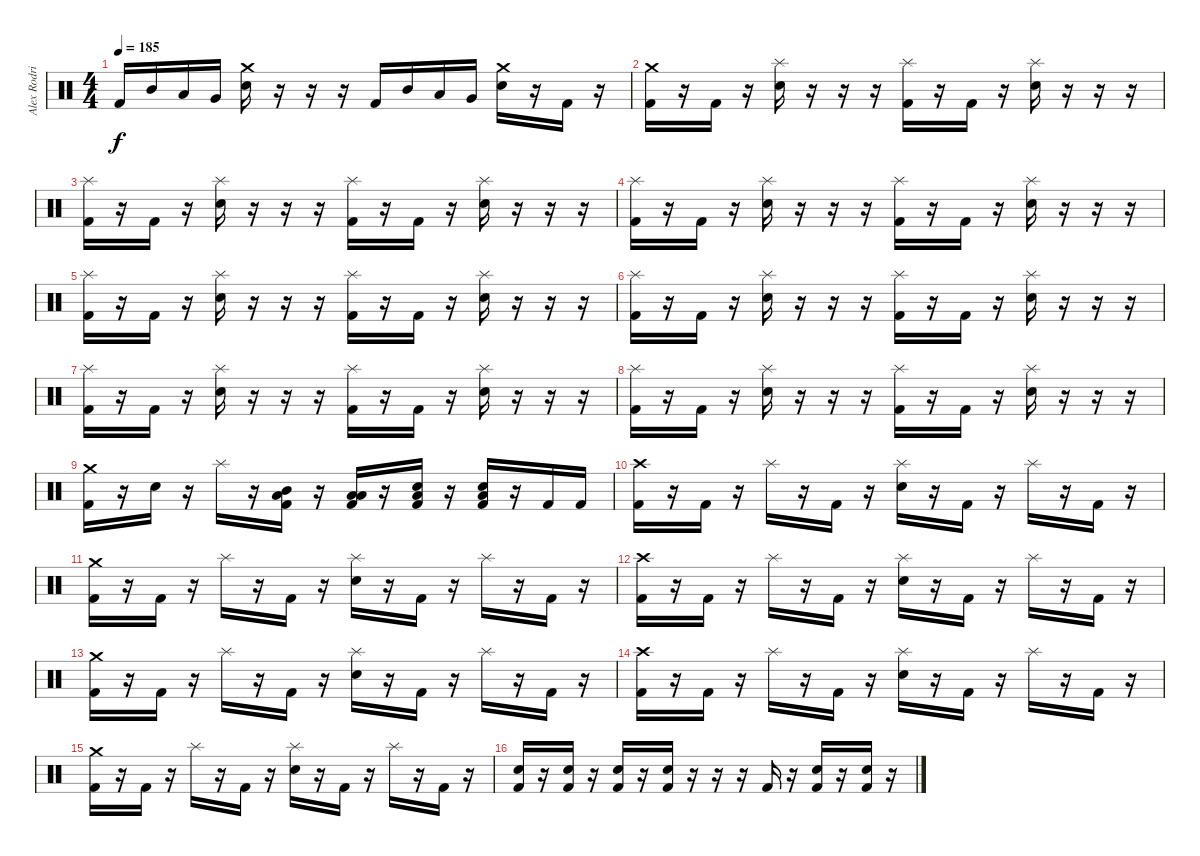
\track ("Alex Rodriguez" "Alex Rodri") {instrument percussion}
\staff {score}
\articulation defaults
\ts (4 4)
\tempo 185
\clef neutral
\ks c "Kick (hit) 2".16{dy f} "Mid Tom (hit)".16 "Low Tom (hit)".16 "Very Low Tom (hit)".16
("Crash medium (hit)" "Electric Snare (hit)").16 r.16 r.16 r.16 "Kick (hit) 2".16 "Mid Tom (hit)".16 "Low Tom (hit)".16 "Very Low Tom (hit)".16 ("Crash medium (hit)" "Electric Snare (hit)").16 r.16 "Kick (hit) 2".16 r.16 |
("Crash medium (hit)" "Kick (hit) 2").16 r.16 "Kick (hit) 2".16 r.16 ("Splash (hit)" "Electric Snare (hit)").16 r.16 r.16 r.16 ("Splash (hit)" "Kick (hit) 2").16 r.16 "Kick (hit) 2".16 r.16 ("Splash (hit)" "Electric Snare (hit)").16 r.16 r.16 r.16 |
("Splash (hit)" "Kick (hit) 2").16 r.16 "Kick (hit) 2".16 r.16 ("Splash (hit)" "Electric Snare (hit)").16 r.16 r.16 r.16 ("Splash (hit)" "Kick (hit) 2").16 r.16 "Kick (hit) 2".16 r.16 ("Splash (hit)" "Electric Snare (hit)").16 r.16 r.16 r.16 |
("Splash (hit)" "Kick (hit) 2").16 r.16 "Kick (hit) 2".16 r.16 ("Splash (hit)" "Electric Snare (hit)").16 r.16 r.16 r.16 ("Splash (hit)" "Kick (hit) 2").16 r.16 "Kick (hit) 2".16 r.16 ("Splash (hit)" "Electric Snare (hit)").16 r.16 r.16 r.16 |
("Splash (hit)" "Kick (hit) 2").16 r.16 "Kick (hit) 2".16 r.16 ("Splash (hit)" "Electric Snare (hit)").16 r.16 r.16 r.16 ("Splash (hit)" "Kick (hit) 2").16 r.16 "Kick (hit) 2".16 r.16 ("Splash (hit)" "Electric Snare (hit)").16 r.16 r.16 r.16 |
("Splash (hit)" "Kick (hit) 2").16 r.16 "Kick (hit) 2".16 r.16 ("Splash (hit)" "Electric Snare (hit)").16 r.16 r.16 r.16 ("Splash (hit)" "Kick (hit) 2").16 r.16 "Kick (hit) 2".16 r.16 ("Splash (hit)" "Electric Snare (hit)").16 r.16 r.16 r.16 |
("Splash (hit)" "Kick (hit) 2").16 r.16 "Kick (hit) 2".16 r.16 ("Splash (hit)" "Electric Snare (hit)").16 r.16 r.16 r.16 ("Splash (hit)" "Kick (hit) 2").16 r.16 "Kick (hit) 2".16 r.16 ("Splash (hit)" "Electric Snare (hit)").16 r.16 r.16 r.16 |
("Splash (hit)" "Kick (hit) 2").16 r.16 "Kick (hit) 2".16 r.16 ("Splash (hit)" "Electric Snare (hit)").16 r.16 r.16 r.16 ("Splash (hit)" "Kick (hit) 2").16 r.16 "Kick (hit) 2".16 r.16 ("Splash (hit)" "Electric Snare (hit)").16 r.16 r.16 r.16 |
("Crash medium (hit)" "Kick (hit) 2").16 r.16 "Electric Snare (hit)".16 r.16 "Splash (hit)".16 r.16 ("Mid Tom (hit)" "Low Floor Tom (hit)" "Kick (hit) 2").16 r.16 ("Low Tom (hit)" "Low Floor Tom (hit)" "Kick (hit) 2").16 r.16 ("Electric Snare (hit)" "Low Floor Tom (hit)" "Kick (hit) 2").16 r.16 ("Electric Snare (hit)" "Low Floor Tom (hit)" "Kick (hit) 2").16 r.16 "Kick (hit) 2".16 "Kick (hit) 2".16 |
("Crash high (hit)" "Kick (hit) 2").16 r.16 "Kick (hit) 2".16 r.16 "Splash (hit)".16 r.16 "Kick (hit) 2".16 r.16 ("Splash (hit)" "Electric Snare (hit)").16 r.16 "Kick (hit) 2".16 r.16 "Splash (hit)".16 r.16 "Kick (hit) 2".16 r.16 |
("Crash medium (hit)" "Kick (hit) 2").16 r.16 "Kick (hit) 2".16 r.16 "Splash (hit)".16 r.16 "Kick (hit) 2".16 r.16 ("Splash (hit)" "Electric Snare (hit)").16 r.16 "Kick (hit) 2".16 r.16 "Splash (hit)".16 r.16 "Kick (hit) 2".16 r.16 |
("Crash high (hit)" "Kick (hit) 2").16 r.16 "Kick (hit) 2".16 r.16 "Splash (hit)".16 r.16 "Kick (hit) 2".16 r.16 ("Splash (hit)" "Electric Snare (hit)").16 r.16 "Kick (hit) 2".16 r.16 "Splash (hit)".16 r.16 "Kick (hit) 2".16 r.16 |
("Crash medium (hit)" "Kick (hit) 2").16 r.16 "Kick (hit) 2".16 r.16 "Splash (hit)".16 r.16 "Kick (hit) 2".16 r.16 ("Splash (hit)" "Electric Snare (hit)").16 r.16 "Kick (hit) 2".16 r.16 "Splash (hit)".16 r.16 "Kick (hit) 2".16 r.16 |
("Crash high (hit)" "Kick (hit) 2").16 r.16 "Kick (hit) 2".16 r.16 "Splash (hit)".16 r.16 "Kick (hit) 2".16 r.16 ("Splash (hit)" "Electric Snare (hit)").16 r.16 "Kick (hit) 2".16 r.16 "Splash (hit)".16 r.16 "Kick (hit) 2".16 r.16 |
("Crash medium (hit)" "Kick (hit) 2").16 r.16 "Kick (hit) 2".16 r.16 "Splash (hit)".16 r.16 "Kick (hit) 2".16 r.16 ("Splash (hit)" "Electric Snare (hit)").16 r.16 "Kick (hit) 2".16 r.16 "Splash (hit)".16 r.16 "Kick (hit) 2".16 r.16 |
("Electric Snare (hit)" "Kick (hit) 2").16 r.16 ("Electric Snare (hit)" "Kick (hit) 2").16 r.16 ("Electric Snare (hit)" "Kick (hit) 2").16 r.16 ("Electric Snare (hit)" "Kick (hit) 2").16 r.16 r.16 r.16 "Kick (hit) 2".16 r.16 ("Electric Snare (hit)" "Kick (hit) 2").16 r.16 ("Electric Snare (hit)" "Kick (hit) 2").16 r.16
